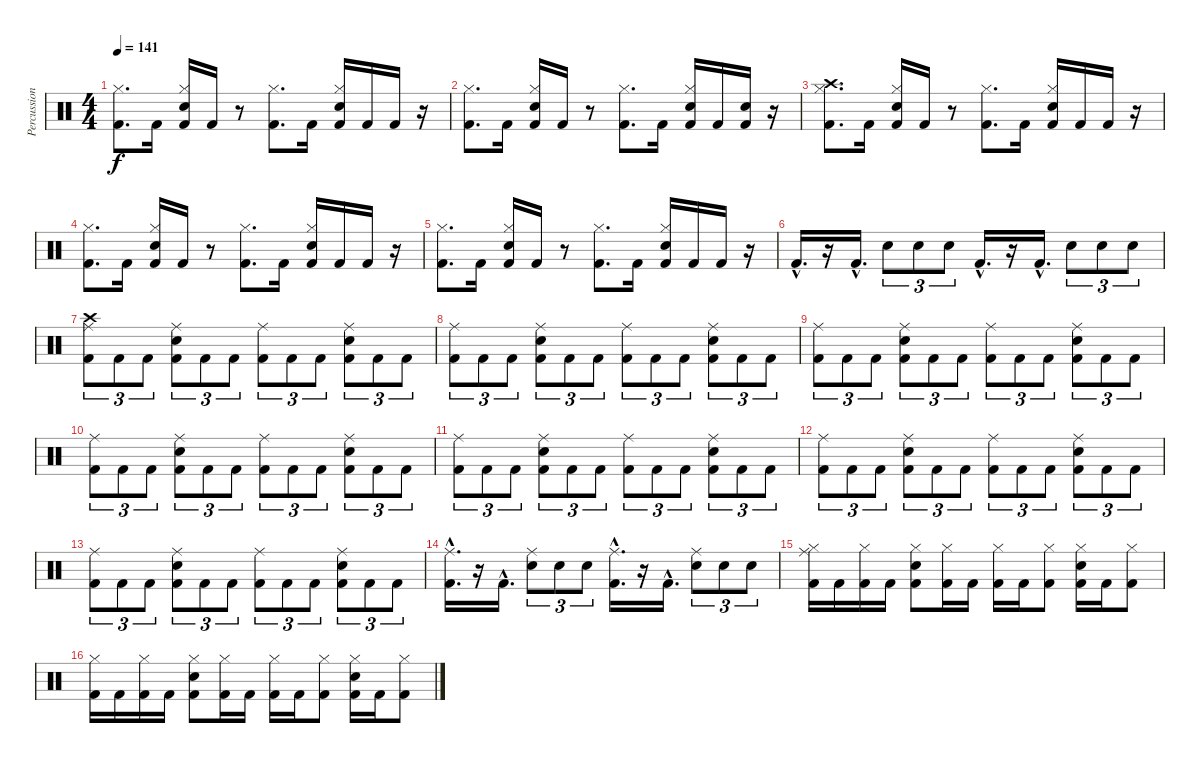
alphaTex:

\track ("Percussion" "Percussion") {instrument percussion}
\staff {score}
\articulation defaults
\ts (4 4)
\tempo 141
\clef neutral
\ks c
("Kick (hit) 2" "Hi-Hat (closed)").8{d dy f} "Kick (hit) 2".16 ("Kick (hit) 2" "Snare (hit) 2" "Hi-Hat (closed)").16 "Kick (hit) 2".16 r.8 ("Kick (hit) 2" "Hi-Hat (closed)").8{d} "Kick (hit) 2".16 ("Kick (hit) 2" "Snare (hit) 2" "Hi-Hat (closed)").16 "Kick (hit) 2".16 "Kick (hit) 2".16 r.16 |
("Kick (hit) 2" "Hi-Hat (closed)").8{d} "Kick (hit) 2".16 ("Kick (hit) 2" "Snare (hit) 2" "Hi-Hat (closed)").16 "Kick (hit) 2".16 r.8 ("Kick (hit) 2" "Hi-Hat (closed)").8{d} "Kick (hit) 2".16 ("Kick (hit) 2" "Snare (hit) 2" "Hi-Hat (closed)").16 "Kick (hit) 2".16 ("Kick (hit) 2" "Snare (hit) 2").16 r.16 |
("Kick (hit) 2" "Hi-Hat (closed)" "Crash high (hit)").8{d} "Kick (hit) 2".16 ("Kick (hit) 2" "Snare (hit) 2" "Hi-Hat (closed)").16 "Kick (hit) 2".16 r.8 ("Kick (hit) 2" "Hi-Hat (closed)").8{d} "Kick (hit) 2".16 ("Kick (hit) 2" "Snare (hit) 2" "Hi-Hat (closed)").16 "Kick (hit) 2".16 "Kick (hit) 2".16 r.16 |
("Kick (hit) 2" "Hi-Hat (closed)").8{d} "Kick (hit) 2".16 ("Kick (hit) 2" "Snare (hit) 2" "Hi-Hat (closed)").16 "Kick (hit) 2".16 r.8 ("Kick (hit) 2" "Hi-Hat (closed)").8{d} "Kick (hit) 2".16 ("Kick (hit) 2" "Snare (hit) 2" "Hi-Hat (closed)").16 "Kick (hit) 2".16 "Kick (hit) 2".16 r.16 |
("Kick (hit) 2" "Hi-Hat (closed)").8{d} "Kick (hit) 2".16 ("Kick (hit) 2" "Snare (hit) 2" "Hi-Hat (closed)").16 "Kick (hit) 2".16 r.8 ("Kick (hit) 2" "Hi-Hat (closed)").8{d} "Kick (hit) 2".16 ("Kick (hit) 2" "Snare (hit) 2" "Hi-Hat (closed)").16 "Kick (hit) 2".16 "Kick (hit) 2".16 r.16 |
"Kick (hit) 2"{hac}.16{d} r.16 "Kick (hit) 2"{hac}.16{d} "Snare (hit) 2".8{tu (3 2)} "Snare (hit) 2".8{tu (3 2)} "Snare (hit) 2".8{tu (3 2)} "Kick (hit) 2"{hac}.16{d} r.16 "Kick (hit) 2"{hac}.16{d} "Snare (hit) 2".8{tu (3 2)} "Snare (hit) 2".8{tu (3 2)} "Snare (hit) 2".8{tu (3 2)} |
("Kick (hit) 2" "Crash high (hit)" "Ride (middle)").8{tu (3 2)} "Kick (hit) 2".8{tu (3 2)} "Kick (hit) 2".8{tu (3 2)} ("Kick (hit) 2" "Snare (hit) 2" "Ride (middle)").8{tu (3 2)} "Kick (hit) 2".8{tu (3 2)} "Kick (hit) 2".8{tu (3 2)} ("Kick (hit) 2" "Ride (middle)").8{tu (3 2)} "Kick (hit) 2".8{tu (3 2)} "Kick (hit) 2".8{tu (3 2)} ("Kick (hit) 2" "Snare (hit) 2" "Ride (middle)").8{tu (3 2)} "Kick (hit) 2".8{tu (3 2)} "Kick (hit) 2".8{tu (3 2)} |
("Kick (hit) 2" "Ride (middle)").8{tu (3 2)} "Kick (hit) 2".8{tu (3 2)} "Kick (hit) 2".8{tu (3 2)} ("Kick (hit) 2" "Snare (hit) 2" "Ride (middle)").8{tu (3 2)} "Kick (hit) 2".8{tu (3 2)} "Kick (hit) 2".8{tu (3 2)} ("Kick (hit) 2" "Ride (middle)").8{tu (3 2)} "Kick (hit) 2".8{tu (3 2)} "Kick (hit) 2".8{tu (3 2)} ("Kick (hit) 2" "Snare (hit) 2" "Ride (middle)").8{tu (3 2)} "Kick (hit) 2".8{tu (3 2)} "Kick (hit) 2".8{tu (3 2)} |
("Kick (hit) 2" "Ride (middle)").8{tu (3 2)} "Kick (hit) 2".8{tu (3 2)} "Kick (hit) 2".8{tu (3 2)} ("Kick (hit) 2" "Snare (hit) 2" "Ride (middle)").8{tu (3 2)} "Kick (hit) 2".8{tu (3 2)} "Kick (hit) 2".8{tu (3 2)} ("Kick (hit) 2" "Ride (middle)").8{tu (3 2)} "Kick (hit) 2".8{tu (3 2)} "Kick (hit) 2".8{tu (3 2)} ("Kick (hit) 2" "Snare (hit) 2" "Ride (middle)").8{tu (3 2)} "Kick (hit) 2".8{tu (3 2)} "Kick (hit) 2".8{tu (3 2)} |
("Kick (hit) 2" "Ride (middle)").8{tu (3 2)} "Kick (hit) 2".8{tu (3 2)} "Kick (hit) 2".8{tu (3 2)} ("Kick (hit) 2" "Snare (hit) 2" "Ride (middle)").8{tu (3 2)} "Kick (hit) 2".8{tu (3 2)} "Kick (hit) 2".8{tu (3 2)} ("Kick (hit) 2" "Ride (middle)").8{tu (3 2)} "Kick (hit) 2".8{tu (3 2)} "Kick (hit) 2".8{tu (3 2)} ("Kick (hit) 2" "Snare (hit) 2" "Ride (middle)").8{tu (3 2)} "Kick (hit) 2".8{tu (3 2)} "Kick (hit) 2".8{tu (3 2)} |
("Kick (hit) 2" "Ride (middle)").8{tu (3 2)} "Kick (hit) 2".8{tu (3 2)} "Kick (hit) 2".8{tu (3 2)} ("Kick (hit) 2" "Snare (hit) 2" "Ride (middle)").8{tu (3 2)} "Kick (hit) 2".8{tu (3 2)} "Kick (hit) 2".8{tu (3 2)} ("Kick (hit) 2" "Ride (middle)").8{tu (3 2)} "Kick (hit) 2".8{tu (3 2)} "Kick (hit) 2".8{tu (3 2)} ("Kick (hit) 2" "Snare (hit) 2" "Ride (middle)").8{tu (3 2)} "Kick (hit) 2".8{tu (3 2)} "Kick (hit) 2".8{tu (3 2)} |
("Kick (hit) 2" "Ride (middle)").8{tu (3 2)} "Kick (hit) 2".8{tu (3 2)} "Kick (hit) 2".8{tu (3 2)} ("Kick (hit) 2" "Snare (hit) 2" "Ride (middle)").8{tu (3 2)} "Kick (hit) 2".8{tu (3 2)} "Kick (hit) 2".8{tu (3 2)} ("Kick (hit) 2" "Ride (middle)").8{tu (3 2)} "Kick (hit) 2".8{tu (3 2)} "Kick (hit) 2".8{tu (3 2)} ("Kick (hit) 2" "Snare (hit) 2" "Ride (middle)").8{tu (3 2)} "Kick (hit) 2".8{tu (3 2)} "Kick (hit) 2".8{tu (3 2)} |
("Kick (hit) 2" "Ride (middle)").8{tu (3 2)} "Kick (hit) 2".8{tu (3 2)} "Kick (hit) 2".8{tu (3 2)} ("Kick (hit) 2" "Snare (hit) 2" "Ride (middle)").8{tu (3 2)} "Kick (hit) 2".8{tu (3 2)} "Kick (hit) 2".8{tu (3 2)} ("Kick (hit) 2" "Ride (middle)").8{tu (3 2)} "Kick (hit) 2".8{tu (3 2)} "Kick (hit) 2".8{tu (3 2)} ("Kick (hit) 2" "Snare (hit) 2" "Ride (middle)").8{tu (3 2)} "Kick (hit) 2".8{tu (3 2)} "Kick (hit) 2".8{tu (3 2)} |
("Kick (hit) 2"{hac} "Ride (middle)"{hac}).16{d} r.16 "Kick (hit) 2"{hac}.16{d} ("Snare (hit) 2" "Ride (middle)").8{tu (3 2)} "Snare (hit) 2".8{tu (3 2)} "Snare (hit) 2".8{tu (3 2)} ("Kick (hit) 2"{hac} "Ride (middle)"{hac}).16{d} r.16 "Kick (hit) 2"{hac}.16{d} ("Snare (hit) 2" "Ride (middle)").8{tu (3 2)} "Snare (hit) 2".8{tu (3 2)} "Snare (hit) 2".8{tu (3 2)} |
("Kick (hit) 2" "Hi-Hat (closed)" "Ride (middle)").16 "Kick (hit) 2".16 ("Kick (hit) 2" "Hi-Hat (closed)").16 "Kick (hit) 2".16 ("Kick (hit) 2" "Snare (hit) 2" "Hi-Hat (closed)").8 ("Kick (hit) 2" "Hi-Hat (closed)").16 "Kick (hit) 2".16 ("Kick (hit) 2" "Hi-Hat (closed)").16 "Kick (hit) 2".16 ("Kick (hit) 2" "Hi-Hat (closed)").8 ("Kick (hit) 2" "Snare (hit) 2" "Hi-Hat (closed)").16 "Kick (hit) 2".16 ("Kick (hit) 2" "Hi-Hat (closed)").8 |
("Kick (hit) 2" "Hi-Hat (closed)").16 "Kick (hit) 2".16 ("Kick (hit) 2" "Hi-Hat (closed)").16 "Kick (hit) 2".16 ("Kick (hit) 2" "Snare (hit) 2" "Hi-Hat (closed)").8 ("Kick (hit) 2" "Hi-Hat (closed)").16 "Kick (hit) 2".16 ("Kick (hit) 2" "Hi-Hat (closed)").16 "Kick (hit) 2".16 ("Kick (hit) 2" "Hi-Hat (closed)").8 ("Kick (hit) 2" "Snare (hit) 2" "Hi-Hat (closed)").16 "Kick (hit) 2".16 ("Kick (hit) 2" "Hi-Hat (closed)").8
